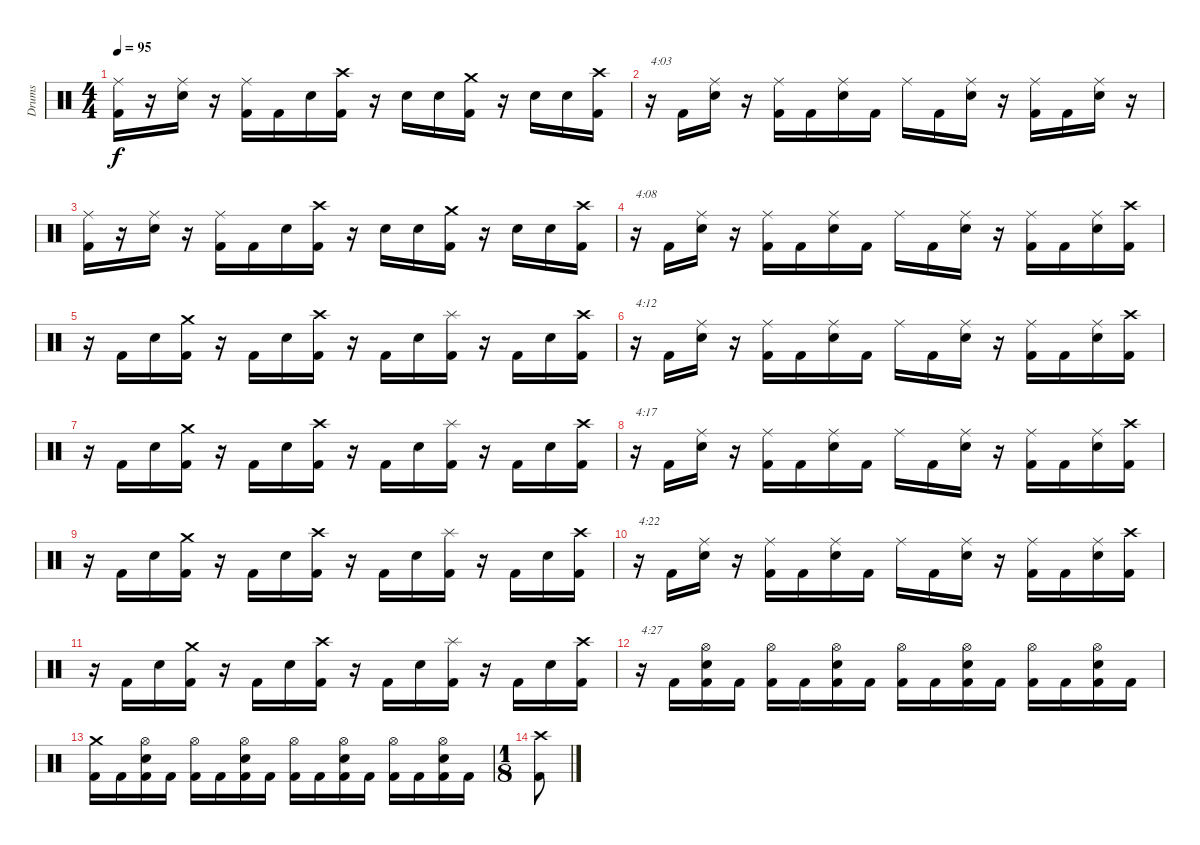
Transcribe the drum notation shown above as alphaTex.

\track ("Drums" "Drums") {instrument percussion}
\staff {score}
\articulation defaults
\ts (4 4)
\tempo 95
\clef neutral
\ks c
("Ride (middle)" "Kick (hit) 2").16{dy f} r.16 ("Ride (middle)" "Electric Snare (hit)").16 r.16 ("Ride (middle)" "Kick (hit) 2").16 "Kick (hit) 2".16 "Electric Snare (hit)".16 ("Crash high (hit)" "Kick (hit) 2").16 r.16 "Electric Snare (hit)".16 "Electric Snare (hit)".16 ("Crash medium (hit)" "Kick (hit) 2").16 r.16 "Electric Snare (hit)".16 "Electric Snare (hit)".16 ("Crash high (hit)" "Kick (hit) 2").16 |
r.16{txt "4:03"} "Kick (hit) 2".16 ("Ride (middle)" "Electric Snare (hit)").16 r.16 ("Ride (middle)" "Kick (hit) 2").16 "Kick (hit) 2".16 ("Ride (middle)" "Electric Snare (hit)").16 "Kick (hit) 2".16 "Ride (middle)".16 "Kick (hit) 2".16 ("Ride (middle)" "Electric Snare (hit)").16 r.16 ("Ride (middle)" "Kick (hit) 2").16 "Kick (hit) 2".16 ("Ride (middle)" "Electric Snare (hit)").16 r.16 |
("Ride (middle)" "Kick (hit) 2").16 r.16 ("Ride (middle)" "Electric Snare (hit)").16 r.16 ("Ride (middle)" "Kick (hit) 2").16 "Kick (hit) 2".16 "Electric Snare (hit)".16 ("Crash high (hit)" "Kick (hit) 2").16 r.16 "Electric Snare (hit)".16 "Electric Snare (hit)".16 ("Crash medium (hit)" "Kick (hit) 2").16 r.16 "Electric Snare (hit)".16 "Electric Snare (hit)".16 ("Crash high (hit)" "Kick (hit) 2").16 |
r.16{txt "4:08"} "Kick (hit) 2".16 ("Ride (middle)" "Electric Snare (hit)").16 r.16 ("Ride (middle)" "Kick (hit) 2").16 "Kick (hit) 2".16 ("Ride (middle)" "Electric Snare (hit)").16 "Kick (hit) 2".16 "Ride (middle)".16 "Kick (hit) 2".16 ("Ride (middle)" "Electric Snare (hit)").16 r.16 ("Ride (middle)" "Kick (hit) 2").16 "Kick (hit) 2".16 ("Ride (middle)" "Electric Snare (hit)").16 ("Crash high (hit)" "Kick (hit) 2").16 |
r.16 "Kick (hit) 2".16 "Electric Snare (hit)".16 ("Crash medium (hit)" "Kick (hit) 2").16 r.16 "Kick (hit) 2".16 "Electric Snare (hit)".16 ("Crash high (hit)" "Kick (hit) 2").16 r.16 "Kick (hit) 2".16 "Electric Snare (hit)".16 ("Splash (hit)" "Kick (hit) 2").16 r.16 "Kick (hit) 2".16 "Electric Snare (hit)".16 ("Crash high (hit)" "Kick (hit) 2").16 |
r.16{txt "4:12"} "Kick (hit) 2".16 ("Ride (middle)" "Electric Snare (hit)").16 r.16 ("Ride (middle)" "Kick (hit) 2").16 "Kick (hit) 2".16 ("Ride (middle)" "Electric Snare (hit)").16 "Kick (hit) 2".16 "Ride (middle)".16 "Kick (hit) 2".16 ("Ride (middle)" "Electric Snare (hit)").16 r.16 ("Ride (middle)" "Kick (hit) 2").16 "Kick (hit) 2".16 ("Ride (middle)" "Electric Snare (hit)").16 ("Crash high (hit)" "Kick (hit) 2").16 |
r.16 "Kick (hit) 2".16 "Electric Snare (hit)".16 ("Crash medium (hit)" "Kick (hit) 2").16 r.16 "Kick (hit) 2".16 "Electric Snare (hit)".16 ("Crash high (hit)" "Kick (hit) 2").16 r.16 "Kick (hit) 2".16 "Electric Snare (hit)".16 ("Splash (hit)" "Kick (hit) 2").16 r.16 "Kick (hit) 2".16 "Electric Snare (hit)".16 ("Crash high (hit)" "Kick (hit) 2").16 |
r.16{txt "4:17"} "Kick (hit) 2".16 ("Ride (middle)" "Electric Snare (hit)").16 r.16 ("Ride (middle)" "Kick (hit) 2").16 "Kick (hit) 2".16 ("Ride (middle)" "Electric Snare (hit)").16 "Kick (hit) 2".16 "Ride (middle)".16 "Kick (hit) 2".16 ("Ride (middle)" "Electric Snare (hit)").16 r.16 ("Ride (middle)" "Kick (hit) 2").16 "Kick (hit) 2".16 ("Ride (middle)" "Electric Snare (hit)").16 ("Crash high (hit)" "Kick (hit) 2").16 |
r.16 "Kick (hit) 2".16 "Electric Snare (hit)".16 ("Crash medium (hit)" "Kick (hit) 2").16 r.16 "Kick (hit) 2".16 "Electric Snare (hit)".16 ("Crash high (hit)" "Kick (hit) 2").16 r.16 "Kick (hit) 2".16 "Electric Snare (hit)".16 ("Splash (hit)" "Kick (hit) 2").16 r.16 "Kick (hit) 2".16 "Electric Snare (hit)".16 ("Crash high (hit)" "Kick (hit) 2").16 |
r.16{txt "4:22"} "Kick (hit) 2".16 ("Ride (middle)" "Electric Snare (hit)").16 r.16 ("Ride (middle)" "Kick (hit) 2").16 "Kick (hit) 2".16 ("Ride (middle)" "Electric Snare (hit)").16 "Kick (hit) 2".16 "Ride (middle)".16 "Kick (hit) 2".16 ("Ride (middle)" "Electric Snare (hit)").16 r.16 ("Ride (middle)" "Kick (hit) 2").16 "Kick (hit) 2".16 ("Ride (middle)" "Electric Snare (hit)").16 ("Crash high (hit)" "Kick (hit) 2").16 |
r.16 "Kick (hit) 2".16 "Electric Snare (hit)".16 ("Crash medium (hit)" "Kick (hit) 2").16 r.16 "Kick (hit) 2".16 "Electric Snare (hit)".16 ("Crash high (hit)" "Kick (hit) 2").16 r.16 "Kick (hit) 2".16 "Electric Snare (hit)".16 ("Splash (hit)" "Kick (hit) 2").16 r.16 "Kick (hit) 2".16 "Electric Snare (hit)".16 ("Crash high (hit)" "Kick (hit) 2").16 |
r.16{txt "4:27"} "Kick (hit) 2".16 ("Hi-Hat (open)" "Electric Snare (hit)" "Kick (hit) 2").16 "Kick (hit) 2".16 ("Hi-Hat (open)" "Kick (hit) 2").16 "Kick (hit) 2".16 ("Hi-Hat (open)" "Electric Snare (hit)" "Kick (hit) 2").16 "Kick (hit) 2".16 ("Hi-Hat (open)" "Kick (hit) 2").16 "Kick (hit) 2".16 ("Hi-Hat (open)" "Electric Snare (hit)" "Kick (hit) 2").16 "Kick (hit) 2".16 ("Hi-Hat (open)" "Kick (hit) 2").16 "Kick (hit) 2".16 ("Hi-Hat (open)" "Electric Snare (hit)" "Kick (hit) 2").16 "Kick (hit) 2".16 |
("Crash medium (hit)" "Kick (hit) 2").16 "Kick (hit) 2".16 ("Hi-Hat (open)" "Electric Snare (hit)" "Kick (hit) 2").16 "Kick (hit) 2".16 ("Hi-Hat (open)" "Kick (hit) 2").16 "Kick (hit) 2".16 ("Hi-Hat (open)" "Electric Snare (hit)" "Kick (hit) 2").16 "Kick (hit) 2".16 ("Hi-Hat (open)" "Kick (hit) 2").16 "Kick (hit) 2".16 ("Hi-Hat (open)" "Electric Snare (hit)" "Kick (hit) 2").16 "Kick (hit) 2".16 ("Hi-Hat (open)" "Kick (hit) 2").16 "Kick (hit) 2".16 ("Hi-Hat (open)" "Electric Snare (hit)" "Kick (hit) 2").16 "Kick (hit) 2".16 |
\ts (1 8)
("Crash high (hit)" "Kick (hit) 2").8
